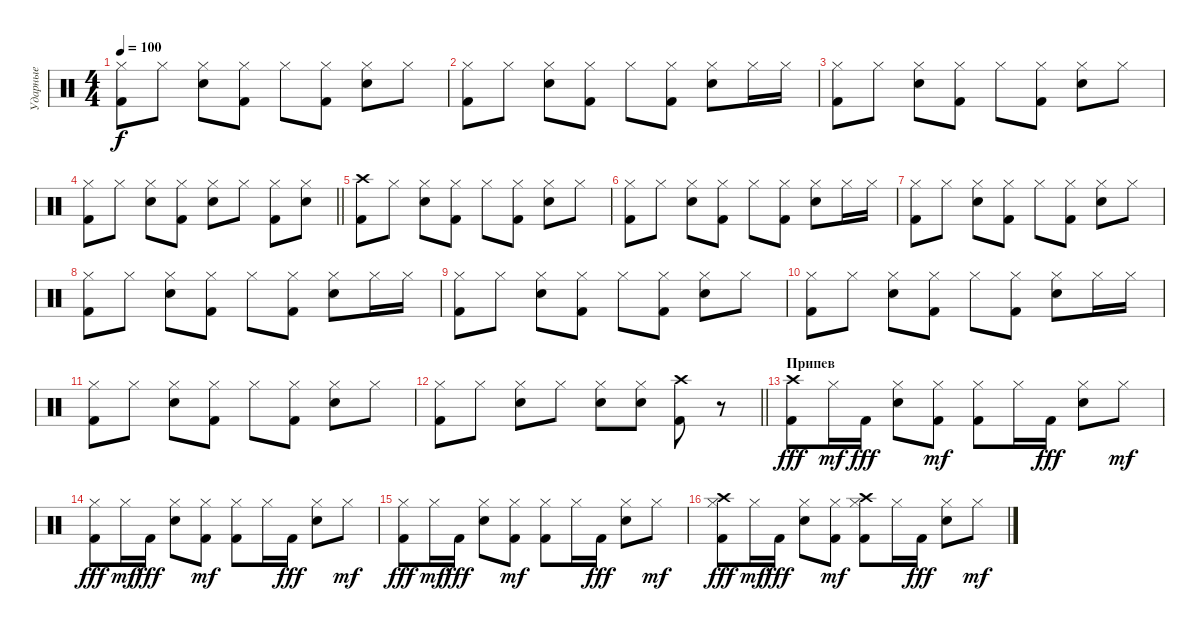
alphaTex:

\track ("Ударные" "Ударные") {instrument percussion}
\staff {score}
\articulation defaults
\ts (4 4)
\tempo 100
\clef neutral
\ks c
("Hi-Hat (closed)" "Kick (hit) 2").8{dy f} "Hi-Hat (closed)".8 ("Hi-Hat (closed)" "Electric Snare (hit)").8 ("Hi-Hat (closed)" "Kick (hit) 2").8 "Hi-Hat (closed)".8 ("Hi-Hat (closed)" "Kick (hit) 2").8 ("Hi-Hat (closed)" "Electric Snare (hit)").8 "Hi-Hat (closed)".8 |
("Hi-Hat (closed)" "Kick (hit) 2").8 "Hi-Hat (closed)".8 ("Hi-Hat (closed)" "Electric Snare (hit)").8 ("Hi-Hat (closed)" "Kick (hit) 2").8 "Hi-Hat (closed)".8 ("Hi-Hat (closed)" "Kick (hit) 2").8 ("Hi-Hat (closed)" "Electric Snare (hit)").8 "Hi-Hat (closed)".16 "Hi-Hat (closed)".16 |
("Hi-Hat (closed)" "Kick (hit) 2").8 "Hi-Hat (closed)".8 ("Hi-Hat (closed)" "Electric Snare (hit)").8 ("Hi-Hat (closed)" "Kick (hit) 2").8 "Hi-Hat (closed)".8 ("Hi-Hat (closed)" "Kick (hit) 2").8 ("Hi-Hat (closed)" "Electric Snare (hit)").8 "Hi-Hat (closed)".8 |
\barLineRight lightlight
("Hi-Hat (closed)" "Kick (hit) 2").8 "Hi-Hat (closed)".8 ("Hi-Hat (closed)" "Electric Snare (hit)").8 ("Hi-Hat (closed)" "Kick (hit) 2").8 ("Hi-Hat (closed)" "Electric Snare (hit)").8 "Hi-Hat (closed)".8 ("Hi-Hat (closed)" "Kick (hit) 2").8 ("Hi-Hat (closed)" "Electric Snare (hit)").8 |
("Crash high (hit)" "Kick (hit) 2").8 "Hi-Hat (closed)".8 ("Hi-Hat (closed)" "Electric Snare (hit)").8 ("Hi-Hat (closed)" "Kick (hit) 2").8 "Hi-Hat (closed)".8 ("Hi-Hat (closed)" "Kick (hit) 2").8 ("Hi-Hat (closed)" "Electric Snare (hit)").8 "Hi-Hat (closed)".8 |
("Hi-Hat (closed)" "Kick (hit) 2").8 "Hi-Hat (closed)".8 ("Hi-Hat (closed)" "Electric Snare (hit)").8 ("Hi-Hat (closed)" "Kick (hit) 2").8 "Hi-Hat (closed)".8 ("Hi-Hat (closed)" "Kick (hit) 2").8 ("Hi-Hat (closed)" "Electric Snare (hit)").8 "Hi-Hat (closed)".16 "Hi-Hat (closed)".16 |
("Hi-Hat (closed)" "Kick (hit) 2").8 "Hi-Hat (closed)".8 ("Hi-Hat (closed)" "Electric Snare (hit)").8 ("Hi-Hat (closed)" "Kick (hit) 2").8 "Hi-Hat (closed)".8 ("Hi-Hat (closed)" "Kick (hit) 2").8 ("Hi-Hat (closed)" "Electric Snare (hit)").8 "Hi-Hat (closed)".8 |
("Hi-Hat (closed)" "Kick (hit) 2").8 "Hi-Hat (closed)".8 ("Hi-Hat (closed)" "Electric Snare (hit)").8 ("Hi-Hat (closed)" "Kick (hit) 2").8 "Hi-Hat (closed)".8 ("Hi-Hat (closed)" "Kick (hit) 2").8 ("Hi-Hat (closed)" "Electric Snare (hit)").8 "Hi-Hat (closed)".16 "Hi-Hat (closed)".16 |
("Hi-Hat (closed)" "Kick (hit) 2").8 "Hi-Hat (closed)".8 ("Hi-Hat (closed)" "Electric Snare (hit)").8 ("Hi-Hat (closed)" "Kick (hit) 2").8 "Hi-Hat (closed)".8 ("Hi-Hat (closed)" "Kick (hit) 2").8 ("Hi-Hat (closed)" "Electric Snare (hit)").8 "Hi-Hat (closed)".8 |
("Hi-Hat (closed)" "Kick (hit) 2").8 "Hi-Hat (closed)".8 ("Hi-Hat (closed)" "Electric Snare (hit)").8 ("Hi-Hat (closed)" "Kick (hit) 2").8 "Hi-Hat (closed)".8 ("Hi-Hat (closed)" "Kick (hit) 2").8 ("Hi-Hat (closed)" "Electric Snare (hit)").8 "Hi-Hat (closed)".16 "Hi-Hat (closed)".16 |
("Hi-Hat (closed)" "Kick (hit) 2").8 "Hi-Hat (closed)".8 ("Hi-Hat (closed)" "Electric Snare (hit)").8 ("Hi-Hat (closed)" "Kick (hit) 2").8 "Hi-Hat (closed)".8 ("Hi-Hat (closed)" "Kick (hit) 2").8 ("Hi-Hat (closed)" "Electric Snare (hit)").8 "Hi-Hat (closed)".8 |
\barLineRight lightlight
("Hi-Hat (closed)" "Kick (hit) 2").8 "Hi-Hat (closed)".8 ("Hi-Hat (closed)" "Electric Snare (hit)").8 "Hi-Hat (closed)".8 ("Hi-Hat (closed)" "Electric Snare (hit)").8 ("Hi-Hat (closed)" "Electric Snare (hit)").8 ("Crash high (hit)" "Kick (hit) 2").8 r.8 |
\section ("" "Припев")
("Kick (hit) 2" "Crash high (hit)").8{dy fff} "Hi-Hat (closed)".16{dy mf} "Kick (hit) 2".16{dy fff} ("Hi-Hat (closed)" "Electric Snare (hit)").8 ("Kick (hit) 2" "Hi-Hat (closed)").8{dy mf} ("Kick (hit) 2" "Hi-Hat (closed)").8 "Hi-Hat (closed)".16 "Kick (hit) 2".16{dy fff} ("Hi-Hat (closed)" "Electric Snare (hit)").8 "Hi-Hat (closed)".8{dy mf} |
("Kick (hit) 2" "Hi-Hat (closed)").8{dy fff} "Hi-Hat (closed)".16{dy mf} "Kick (hit) 2".16{dy fff} ("Hi-Hat (closed)" "Electric Snare (hit)").8 ("Kick (hit) 2" "Hi-Hat (closed)").8{dy mf} ("Kick (hit) 2" "Hi-Hat (closed)").8 "Hi-Hat (closed)".16 "Kick (hit) 2".16{dy fff} ("Hi-Hat (closed)" "Electric Snare (hit)").8 "Hi-Hat (closed)".8{dy mf} |
("Kick (hit) 2" "Hi-Hat (closed)").8{dy fff} "Hi-Hat (closed)".16{dy mf} "Kick (hit) 2".16{dy fff} ("Hi-Hat (closed)" "Electric Snare (hit)").8 ("Kick (hit) 2" "Hi-Hat (closed)").8{dy mf} ("Kick (hit) 2" "Hi-Hat (closed)").8 "Hi-Hat (closed)".16 "Kick (hit) 2".16{dy fff} ("Hi-Hat (closed)" "Electric Snare (hit)").8 "Hi-Hat (closed)".8{dy mf} |
("Kick (hit) 2" "Crash high (hit)" "Hi-Hat (closed)").8{dy fff} "Hi-Hat (closed)".16{dy mf} "Kick (hit) 2".16{dy fff} ("Hi-Hat (closed)" "Electric Snare (hit)").8 ("Kick (hit) 2" "Hi-Hat (closed)").8{dy mf} ("Kick (hit) 2" "Crash high (hit)" "Hi-Hat (closed)").8 "Hi-Hat (closed)".16 "Kick (hit) 2".16{dy fff} ("Hi-Hat (closed)" "Electric Snare (hit)").8 "Hi-Hat (closed)".8{dy mf}
